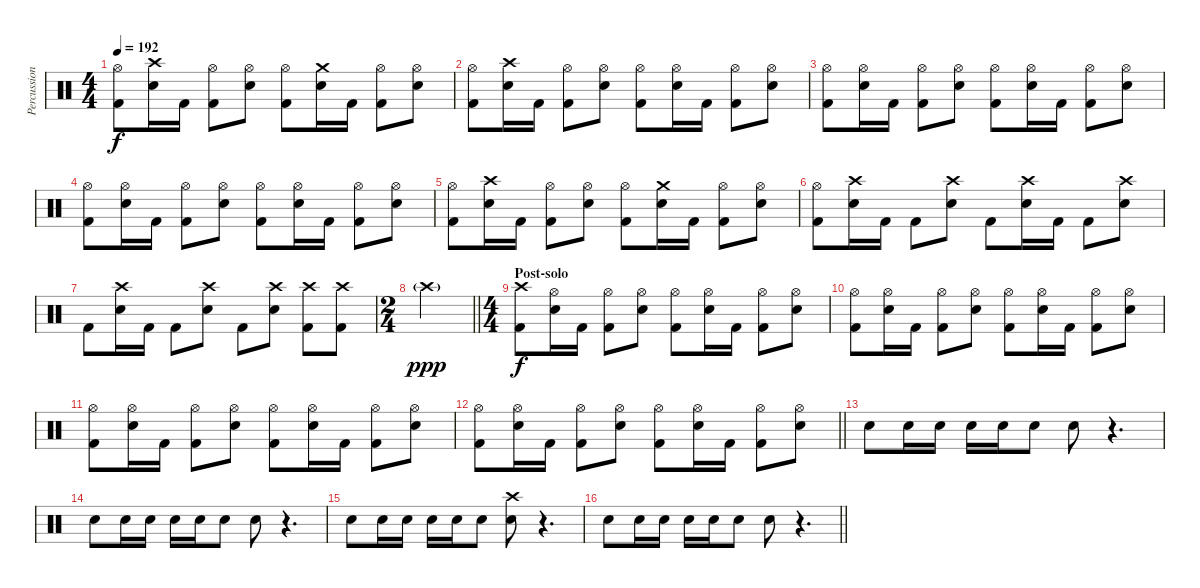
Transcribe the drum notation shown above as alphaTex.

\track ("Percussion" "Percussion") {instrument percussion}
\staff {score}
\articulation defaults
\ts (4 4)
\tempo 192
\clef neutral
\ks c
("Hi-Hat (open)" "Kick (hit) 2").8{dy f} ("Crash high (hit)" "Electric Snare (hit)").16 "Kick (hit) 2".16 ("Hi-Hat (open)" "Kick (hit) 2").8 ("Hi-Hat (open)" "Electric Snare (hit)").8 ("Hi-Hat (open)" "Kick (hit) 2").8 ("Crash medium (hit)" "Electric Snare (hit)").16 "Kick (hit) 2".16 ("Hi-Hat (open)" "Kick (hit) 2").8 ("Hi-Hat (open)" "Electric Snare (hit)").8 |
("Hi-Hat (open)" "Kick (hit) 2").8 ("Crash high (hit)" "Electric Snare (hit)").16 "Kick (hit) 2".16 ("Hi-Hat (open)" "Kick (hit) 2").8 ("Hi-Hat (open)" "Electric Snare (hit)").8 ("Hi-Hat (open)" "Kick (hit) 2").8 ("Hi-Hat (open)" "Electric Snare (hit)").16 "Kick (hit) 2".16 ("Hi-Hat (open)" "Kick (hit) 2").8 ("Hi-Hat (open)" "Electric Snare (hit)").8 |
("Hi-Hat (open)" "Kick (hit) 2").8 ("Hi-Hat (open)" "Electric Snare (hit)").16 "Kick (hit) 2".16 ("Hi-Hat (open)" "Kick (hit) 2").8 ("Hi-Hat (open)" "Electric Snare (hit)").8 ("Hi-Hat (open)" "Kick (hit) 2").8 ("Hi-Hat (open)" "Electric Snare (hit)").16 "Kick (hit) 2".16 ("Hi-Hat (open)" "Kick (hit) 2").8 ("Hi-Hat (open)" "Electric Snare (hit)").8 |
("Hi-Hat (open)" "Kick (hit) 2").8 ("Hi-Hat (open)" "Electric Snare (hit)").16 "Kick (hit) 2".16 ("Hi-Hat (open)" "Kick (hit) 2").8 ("Hi-Hat (open)" "Electric Snare (hit)").8 ("Hi-Hat (open)" "Kick (hit) 2").8 ("Hi-Hat (open)" "Electric Snare (hit)").16 "Kick (hit) 2".16 ("Hi-Hat (open)" "Kick (hit) 2").8 ("Hi-Hat (open)" "Electric Snare (hit)").8 |
("Hi-Hat (open)" "Kick (hit) 2").8 ("Crash high (hit)" "Electric Snare (hit)").16 "Kick (hit) 2".16 ("Hi-Hat (open)" "Kick (hit) 2").8 ("Hi-Hat (open)" "Electric Snare (hit)").8 ("Hi-Hat (open)" "Kick (hit) 2").8 ("Crash medium (hit)" "Electric Snare (hit)").16 "Kick (hit) 2".16 ("Hi-Hat (open)" "Kick (hit) 2").8 ("Hi-Hat (open)" "Electric Snare (hit)").8 |
("Hi-Hat (open)" "Kick (hit) 2").8 ("Crash high (hit)" "Electric Snare (hit)").16 "Kick (hit) 2".16 "Kick (hit) 2".8 ("Crash high (hit)" "Electric Snare (hit)").8 "Kick (hit) 2".8 ("Crash high (hit)" "Electric Snare (hit)").16 "Kick (hit) 2".16 "Kick (hit) 2".8 ("Crash high (hit)" "Electric Snare (hit)").8 |
"Kick (hit) 2".8 ("Crash high (hit)" "Electric Snare (hit)").16 "Kick (hit) 2".16 "Kick (hit) 2".8 ("Crash high (hit)" "Electric Snare (hit)").8 "Kick (hit) 2".8 ("Crash high (hit)" "Electric Snare (hit)").8 ("Crash high (hit)" "Kick (hit) 2").8 ("Crash high (hit)" "Kick (hit) 2").8 |
\ts (2 4)
\barLineRight lightlight "Crash high (hit)"{g}.2{dy ppp}
|
\ts (4 4)
\section ("" "Post-solo")
("Crash high (hit)" "Kick (hit) 2").8{dy f} ("Hi-Hat (open)" "Electric Snare (hit)").16 "Kick (hit) 2".16 ("Hi-Hat (open)" "Kick (hit) 2").8 ("Hi-Hat (open)" "Electric Snare (hit)").8 ("Hi-Hat (open)" "Kick (hit) 2").8 ("Hi-Hat (open)" "Electric Snare (hit)").16 "Kick (hit) 2".16 ("Hi-Hat (open)" "Kick (hit) 2").8 ("Hi-Hat (open)" "Electric Snare (hit)").8 |
("Hi-Hat (open)" "Kick (hit) 2").8 ("Hi-Hat (open)" "Electric Snare (hit)").16 "Kick (hit) 2".16 ("Hi-Hat (open)" "Kick (hit) 2").8 ("Hi-Hat (open)" "Electric Snare (hit)").8 ("Hi-Hat (open)" "Kick (hit) 2").8 ("Hi-Hat (open)" "Electric Snare (hit)").16 "Kick (hit) 2".16 ("Hi-Hat (open)" "Kick (hit) 2").8 ("Hi-Hat (open)" "Electric Snare (hit)").8 |
("Hi-Hat (open)" "Kick (hit) 2").8 ("Hi-Hat (open)" "Electric Snare (hit)").16 "Kick (hit) 2".16 ("Hi-Hat (open)" "Kick (hit) 2").8 ("Hi-Hat (open)" "Electric Snare (hit)").8 ("Hi-Hat (open)" "Kick (hit) 2").8 ("Hi-Hat (open)" "Electric Snare (hit)").16 "Kick (hit) 2".16 ("Hi-Hat (open)" "Kick (hit) 2").8 ("Hi-Hat (open)" "Electric Snare (hit)").8 |
\barLineRight lightlight
("Hi-Hat (open)" "Kick (hit) 2").8 ("Hi-Hat (open)" "Electric Snare (hit)").16 "Kick (hit) 2".16 ("Hi-Hat (open)" "Kick (hit) 2").8 ("Hi-Hat (open)" "Electric Snare (hit)").8 ("Hi-Hat (open)" "Kick (hit) 2").8 ("Hi-Hat (open)" "Electric Snare (hit)").16 "Kick (hit) 2".16 ("Hi-Hat (open)" "Kick (hit) 2").8 ("Hi-Hat (open)" "Electric Snare (hit)").8 |
"Electric Snare (hit)".8 "Electric Snare (hit)".16 "Electric Snare (hit)".16 "Electric Snare (hit)".16 "Electric Snare (hit)".16 "Electric Snare (hit)".8 "Electric Snare (hit)".8 r.4{d} |
"Electric Snare (hit)".8 "Electric Snare (hit)".16 "Electric Snare (hit)".16 "Electric Snare (hit)".16 "Electric Snare (hit)".16 "Electric Snare (hit)".8 "Electric Snare (hit)".8 r.4{d} |
"Electric Snare (hit)".8 "Electric Snare (hit)".16 "Electric Snare (hit)".16 "Electric Snare (hit)".16 "Electric Snare (hit)".16 "Electric Snare (hit)".8 ("Crash high (hit)" "Electric Snare (hit)").8 r.4{d} |
\barLineRight lightlight "Electric Snare (hit)".8 "Electric Snare (hit)".16 "Electric Snare (hit)".16 "Electric Snare (hit)".16 "Electric Snare (hit)".16 "Electric Snare (hit)".8 "Electric Snare (hit)".8
r.4{d}
